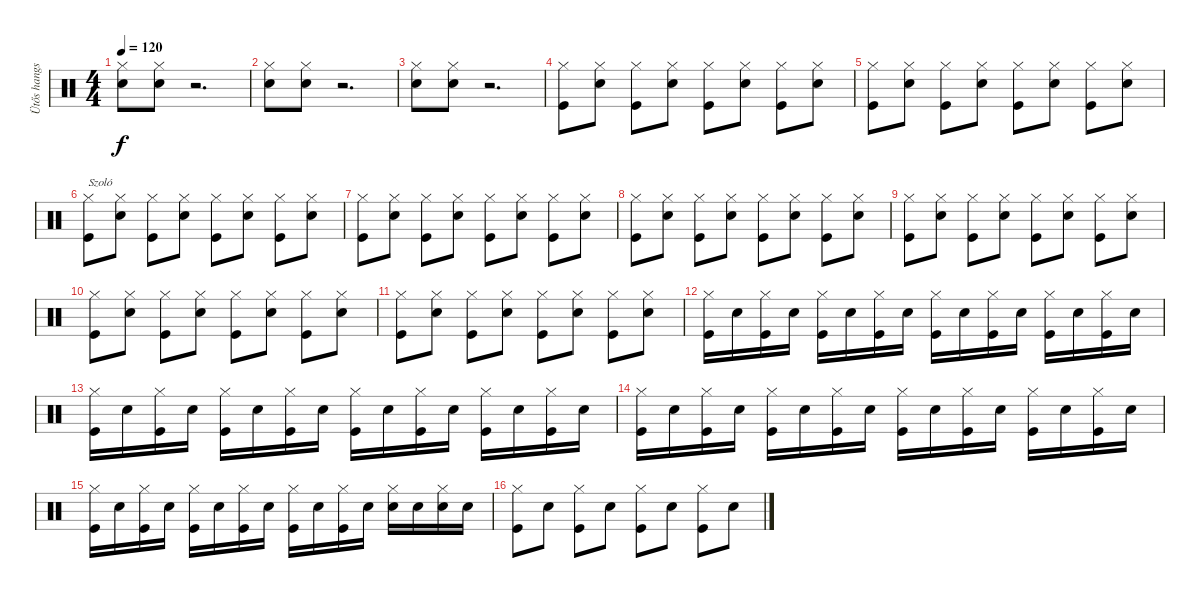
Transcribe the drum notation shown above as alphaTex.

\track ("Ütős hangszer" "Ütős hangs") {instrument percussion}
\staff {score}
\articulation defaults
\ts (4 4)
\tempo 120
\clef neutral
\ks c
("Hi-Hat (closed)" "Snare (hit) 2").8{dy f} ("Hi-Hat (closed)" "Snare (hit) 2").8 r.2{d} |
("Hi-Hat (closed)" "Snare (hit) 2").8 ("Hi-Hat (closed)" "Snare (hit) 2").8 r.2{d} |
("Hi-Hat (closed)" "Snare (hit) 2").8 ("Hi-Hat (closed)" "Snare (hit) 2").8 r.2{d} |
("Hi-Hat (closed)" "Kick (hit)").8 ("Hi-Hat (closed)" "Snare (hit) 2").8 ("Hi-Hat (closed)" "Kick (hit)").8 ("Hi-Hat (closed)" "Snare (hit) 2").8 ("Hi-Hat (closed)" "Kick (hit)").8 ("Hi-Hat (closed)" "Snare (hit) 2").8 ("Hi-Hat (closed)" "Kick (hit)").8 ("Hi-Hat (closed)" "Snare (hit) 2").8 |
("Hi-Hat (closed)" "Kick (hit)").8 ("Hi-Hat (closed)" "Snare (hit) 2").8 ("Hi-Hat (closed)" "Kick (hit)").8 ("Hi-Hat (closed)" "Snare (hit) 2").8 ("Hi-Hat (closed)" "Kick (hit)").8 ("Hi-Hat (closed)" "Snare (hit) 2").8 ("Hi-Hat (closed)" "Kick (hit)").8 ("Hi-Hat (closed)" "Snare (hit) 2").8 |
("Hi-Hat (closed)" "Kick (hit)").8{txt "Szoló"} ("Hi-Hat (closed)" "Snare (hit) 2").8 ("Hi-Hat (closed)" "Kick (hit)").8 ("Hi-Hat (closed)" "Snare (hit) 2").8 ("Hi-Hat (closed)" "Kick (hit)").8 ("Hi-Hat (closed)" "Snare (hit) 2").8 ("Hi-Hat (closed)" "Kick (hit)").8 ("Hi-Hat (closed)" "Snare (hit) 2").8 |
("Hi-Hat (closed)" "Kick (hit)").8 ("Hi-Hat (closed)" "Snare (hit) 2").8 ("Hi-Hat (closed)" "Kick (hit)").8 ("Hi-Hat (closed)" "Snare (hit) 2").8 ("Hi-Hat (closed)" "Kick (hit)").8 ("Hi-Hat (closed)" "Snare (hit) 2").8 ("Hi-Hat (closed)" "Kick (hit)").8 ("Hi-Hat (closed)" "Snare (hit) 2").8 |
("Hi-Hat (closed)" "Kick (hit)").8 ("Hi-Hat (closed)" "Snare (hit) 2").8 ("Hi-Hat (closed)" "Kick (hit)").8 ("Hi-Hat (closed)" "Snare (hit) 2").8 ("Hi-Hat (closed)" "Kick (hit)").8 ("Hi-Hat (closed)" "Snare (hit) 2").8 ("Hi-Hat (closed)" "Kick (hit)").8 ("Hi-Hat (closed)" "Snare (hit) 2").8 |
("Hi-Hat (closed)" "Kick (hit)").8 ("Hi-Hat (closed)" "Snare (hit) 2").8 ("Hi-Hat (closed)" "Kick (hit)").8 ("Hi-Hat (closed)" "Snare (hit) 2").8 ("Hi-Hat (closed)" "Kick (hit)").8 ("Hi-Hat (closed)" "Snare (hit) 2").8 ("Hi-Hat (closed)" "Kick (hit)").8 ("Hi-Hat (closed)" "Snare (hit) 2").8 |
("Hi-Hat (closed)" "Kick (hit)").8 ("Hi-Hat (closed)" "Snare (hit) 2").8 ("Hi-Hat (closed)" "Kick (hit)").8 ("Hi-Hat (closed)" "Snare (hit) 2").8 ("Hi-Hat (closed)" "Kick (hit)").8 ("Hi-Hat (closed)" "Snare (hit) 2").8 ("Hi-Hat (closed)" "Kick (hit)").8 ("Hi-Hat (closed)" "Snare (hit) 2").8 |
("Hi-Hat (closed)" "Kick (hit)").8 ("Hi-Hat (closed)" "Snare (hit) 2").8 ("Hi-Hat (closed)" "Kick (hit)").8 ("Hi-Hat (closed)" "Snare (hit) 2").8 ("Hi-Hat (closed)" "Kick (hit)").8 ("Hi-Hat (closed)" "Snare (hit) 2").8 ("Hi-Hat (closed)" "Kick (hit)").8 ("Hi-Hat (closed)" "Snare (hit) 2").8 |
("Hi-Hat (closed)" "Kick (hit)").16 "Snare (hit) 2".16 ("Hi-Hat (closed)" "Kick (hit)").16 "Snare (hit) 2".16 ("Hi-Hat (closed)" "Kick (hit)").16 "Snare (hit) 2".16 ("Hi-Hat (closed)" "Kick (hit)").16 "Snare (hit) 2".16 ("Hi-Hat (closed)" "Kick (hit)").16 "Snare (hit) 2".16 ("Hi-Hat (closed)" "Kick (hit)").16 "Snare (hit) 2".16 ("Hi-Hat (closed)" "Kick (hit)").16 "Snare (hit) 2".16 ("Hi-Hat (closed)" "Kick (hit)").16 "Snare (hit) 2".16 |
("Hi-Hat (closed)" "Kick (hit)").16 "Snare (hit) 2".16 ("Hi-Hat (closed)" "Kick (hit)").16 "Snare (hit) 2".16 ("Hi-Hat (closed)" "Kick (hit)").16 "Snare (hit) 2".16 ("Hi-Hat (closed)" "Kick (hit)").16 "Snare (hit) 2".16 ("Hi-Hat (closed)" "Kick (hit)").16 "Snare (hit) 2".16 ("Hi-Hat (closed)" "Kick (hit)").16 "Snare (hit) 2".16 ("Hi-Hat (closed)" "Kick (hit)").16 "Snare (hit) 2".16 ("Hi-Hat (closed)" "Kick (hit)").16 "Snare (hit) 2".16 |
("Hi-Hat (closed)" "Kick (hit)").16 "Snare (hit) 2".16 ("Hi-Hat (closed)" "Kick (hit)").16 "Snare (hit) 2".16 ("Hi-Hat (closed)" "Kick (hit)").16 "Snare (hit) 2".16 ("Hi-Hat (closed)" "Kick (hit)").16 "Snare (hit) 2".16 ("Hi-Hat (closed)" "Kick (hit)").16 "Snare (hit) 2".16 ("Hi-Hat (closed)" "Kick (hit)").16 "Snare (hit) 2".16 ("Hi-Hat (closed)" "Kick (hit)").16 "Snare (hit) 2".16 ("Hi-Hat (closed)" "Kick (hit)").16 "Snare (hit) 2".16 |
("Hi-Hat (closed)" "Kick (hit)").16 "Snare (hit) 2".16 ("Hi-Hat (closed)" "Kick (hit)").16 "Snare (hit) 2".16 ("Hi-Hat (closed)" "Kick (hit)").16 "Snare (hit) 2".16 ("Hi-Hat (closed)" "Kick (hit)").16 "Snare (hit) 2".16 ("Hi-Hat (closed)" "Kick (hit)").16 "Snare (hit) 2".16 ("Hi-Hat (closed)" "Kick (hit)").16 "Snare (hit) 2".16 ("Hi-Hat (closed)" "Snare (hit) 2").16 "Snare (hit) 2".16 ("Hi-Hat (closed)" "Snare (hit) 2").16 "Snare (hit) 2".16 |
("Hi-Hat (closed)" "Kick (hit)").8 "Snare (hit) 2".8 ("Hi-Hat (closed)" "Kick (hit)").8 "Snare (hit) 2".8 ("Hi-Hat (closed)" "Kick (hit)").8 "Snare (hit) 2".8 ("Hi-Hat (closed)" "Kick (hit)").8 "Snare (hit) 2".8
